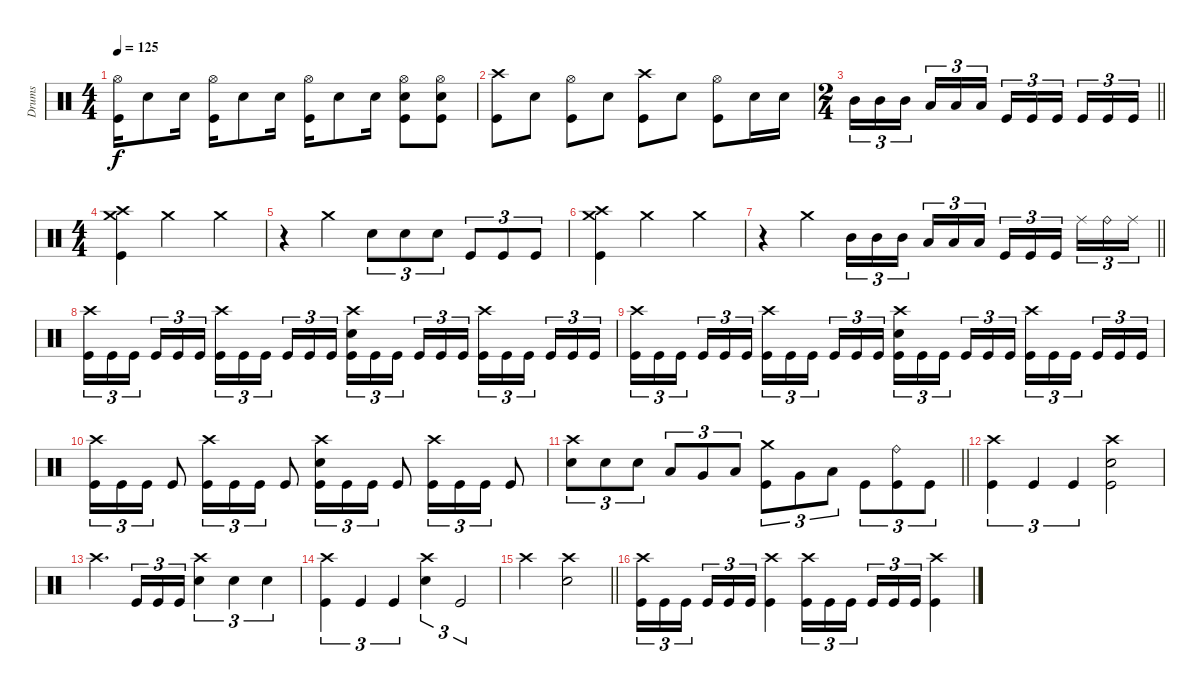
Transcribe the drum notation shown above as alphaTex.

\track ("Drums" "Drums") {instrument percussion}
\staff
\articulation defaults
\ts (4 4)
\tempo 125
\clef neutral
\ks c
("Hi-Hat (open)" "Kick (hit)").16{dy f} "Electric Snare (hit)".8 "Electric Snare (hit)".16 ("Hi-Hat (open)" "Kick (hit)").16 "Electric Snare (hit)".8 "Electric Snare (hit)".16 ("Hi-Hat (open)" "Kick (hit)").16 "Electric Snare (hit)".8 "Electric Snare (hit)".16 ("Hi-Hat (open)" "Electric Snare (hit)" "Kick (hit)").8 ("Hi-Hat (open)" "Electric Snare (hit)" "Kick (hit)").8 |
("Crash high (hit)" "Kick (hit)").8 "Electric Snare (hit)".8 ("Hi-Hat (open)" "Kick (hit)").8 "Electric Snare (hit)".8 ("Crash high (hit)" "Kick (hit)").8 "Electric Snare (hit)".8 ("Hi-Hat (open)" "Kick (hit)").8 "Electric Snare (hit)".16 "Electric Snare (hit)".16 |
\ts (2 4)
\barLineRight lightlight "Mid Tom (hit)".16{tu (3 2)} "Mid Tom (hit)".16{tu (3 2)} "Mid Tom (hit)".16{tu (3 2) beam splitsecondary} "Low Tom (hit)".16{tu (3 2)} "Low Tom (hit)".16{tu (3 2)} "Low Tom (hit)".16{tu (3 2)} "Kick (hit)".16{tu (3 2)} "Kick (hit)".16{tu (3 2)} "Kick (hit)".16{tu (3 2) beam splitsecondary} "Kick (hit)".16{tu (3 2)} "Kick (hit)".16{tu (3 2)} "Kick (hit)".16{tu (3 2)}
|
\ts (4 4)
\section ("" "")
("Crash high (hit)" "Crash medium (hit)" "Kick (hit)").4 "Crash medium (hit)".2 "Crash medium (hit)".4 |
r.4 "Crash medium (hit)".4 "Electric Snare (hit)".8{tu (3 2)} "Electric Snare (hit)".8{tu (3 2)} "Electric Snare (hit)".8{tu (3 2)} "Kick (hit)".8{tu (3 2)} "Kick (hit)".8{tu (3 2)} "Kick (hit)".8{tu (3 2)} |
("Crash high (hit)" "Crash medium (hit)" "Kick (hit)").4 "Crash medium (hit)".2 "Crash medium (hit)".4 |
\barLineRight lightlight
r.4 "Crash medium (hit)".4 "Mid Tom (hit)".16{tu (3 2)} "Mid Tom (hit)".16{tu (3 2)} "Mid Tom (hit)".16{tu (3 2) beam splitsecondary} "Low Tom (hit)".16{tu (3 2)} "Low Tom (hit)".16{tu (3 2)} "Low Tom (hit)".16{tu (3 2)} "Kick (hit)".16{tu (3 2)} "Kick (hit)".16{tu (3 2)} "Kick (hit)".16{tu (3 2) beam splitsecondary} "Ride (middle)".16{tu (3 2)} "Ride (bell)".16{tu (3 2)} "Ride (middle)".16{tu (3 2)} |
("Crash high (hit)" "Kick (hit)").16{tu (3 2)} "Kick (hit)".16{tu (3 2)} "Kick (hit)".16{tu (3 2) beam splitsecondary} "Kick (hit)".16{tu (3 2)} "Kick (hit)".16{tu (3 2)} "Kick (hit)".16{tu (3 2)} ("Crash high (hit)" "Kick (hit)").16{tu (3 2)} "Kick (hit)".16{tu (3 2)} "Kick (hit)".16{tu (3 2) beam splitsecondary} "Kick (hit)".16{tu (3 2)} "Kick (hit)".16{tu (3 2)} "Kick (hit)".16{tu (3 2)} ("Crash high (hit)" "Electric Snare (hit)" "Kick (hit)").16{tu (3 2)} "Kick (hit)".16{tu (3 2)} "Kick (hit)".16{tu (3 2) beam splitsecondary} "Kick (hit)".16{tu (3 2)} "Kick (hit)".16{tu (3 2)} "Kick (hit)".16{tu (3 2)} ("Crash high (hit)" "Kick (hit)").16{tu (3 2)} "Kick (hit)".16{tu (3 2)} "Kick (hit)".16{tu (3 2) beam splitsecondary} "Kick (hit)".16{tu (3 2)} "Kick (hit)".16{tu (3 2)} "Kick (hit)".16{tu (3 2)} |
("Crash high (hit)" "Kick (hit)").16{tu (3 2)} "Kick (hit)".16{tu (3 2)} "Kick (hit)".16{tu (3 2) beam splitsecondary} "Kick (hit)".16{tu (3 2)} "Kick (hit)".16{tu (3 2)} "Kick (hit)".16{tu (3 2)} ("Crash high (hit)" "Kick (hit)").16{tu (3 2)} "Kick (hit)".16{tu (3 2)} "Kick (hit)".16{tu (3 2) beam splitsecondary} "Kick (hit)".16{tu (3 2)} "Kick (hit)".16{tu (3 2)} "Kick (hit)".16{tu (3 2)} ("Crash high (hit)" "Electric Snare (hit)" "Kick (hit)").16{tu (3 2)} "Kick (hit)".16{tu (3 2)} "Kick (hit)".16{tu (3 2) beam splitsecondary} "Kick (hit)".16{tu (3 2)} "Kick (hit)".16{tu (3 2)} "Kick (hit)".16{tu (3 2)} ("Crash high (hit)" "Kick (hit)").16{tu (3 2)} "Kick (hit)".16{tu (3 2)} "Kick (hit)".16{tu (3 2) beam splitsecondary} "Kick (hit)".16{tu (3 2)} "Kick (hit)".16{tu (3 2)} "Kick (hit)".16{tu (3 2)} |
("Crash high (hit)" "Kick (hit)").16{tu (3 2)} "Kick (hit)".16{tu (3 2)} "Kick (hit)".16{tu (3 2)} "Kick (hit)".8 ("Crash high (hit)" "Kick (hit)").16{tu (3 2)} "Kick (hit)".16{tu (3 2)} "Kick (hit)".16{tu (3 2)} "Kick (hit)".8 ("Crash high (hit)" "Electric Snare (hit)" "Kick (hit)").16{tu (3 2)} "Kick (hit)".16{tu (3 2)} "Kick (hit)".16{tu (3 2)} "Kick (hit)".8 ("Crash high (hit)" "Kick (hit)").16{tu (3 2)} "Kick (hit)".16{tu (3 2)} "Kick (hit)".16{tu (3 2)} "Kick (hit)".8 |
\barLineRight lightlight
("Crash high (hit)" "Electric Snare (hit)").8{tu (3 2)} "Electric Snare (hit)".8{tu (3 2)} "Electric Snare (hit)".8{tu (3 2)} "Low Tom (hit)".8{tu (3 2)} "Very Low Tom (hit)".8{tu (3 2)} "Low Floor Tom (hit)".8{tu (3 2)} ("Crash medium (hit)" "Kick (hit)").8{tu (3 2)} "Very Low Tom (hit)".8{tu (3 2)} "Low Floor Tom (hit)".8{tu (3 2)} "Kick (hit)".8{tu (3 2)} ("Ride (bell)" "Kick (hit)").8{tu (3 2)} "Kick (hit)".8{tu (3 2)} |
("Crash high (hit)" "Kick (hit)").4{tu (3 2)} "Kick (hit)".4{tu (3 2)} "Kick (hit)".4{tu (3 2)} ("Crash high (hit)" "Electric Snare (hit)" "Kick (hit)").2 |
"Crash high (hit)".4{d} "Kick (hit)".16{tu (3 2)} "Kick (hit)".16{tu (3 2)} "Kick (hit)".16{tu (3 2)} ("Crash high (hit)" "Electric Snare (hit)").4{tu (3 2)} "Electric Snare (hit)".4{tu (3 2)} "Electric Snare (hit)".4{tu (3 2)} |
("Crash high (hit)" "Kick (hit)").4{tu (3 2)} "Kick (hit)".4{tu (3 2)} "Kick (hit)".4{tu (3 2)} ("Crash high (hit)" "Electric Snare (hit)").4{tu (3 2)} "Kick (hit)".2{tu (3 2)} |
\barLineRight lightlight "Crash high (hit)".2
("Crash high (hit)" "Electric Snare (hit)").2 |
("Crash high (hit)" "Kick (hit)").16{tu (3 2)} "Kick (hit)".16{tu (3 2)} "Kick (hit)".16{tu (3 2) beam splitsecondary} "Kick (hit)".16{tu (3 2)} "Kick (hit)".16{tu (3 2)} "Kick (hit)".16{tu (3 2)} ("Crash high (hit)" "Kick (hit)").4 ("Crash high (hit)" "Kick (hit)").16{tu (3 2)} "Kick (hit)".16{tu (3 2)} "Kick (hit)".16{tu (3 2) beam splitsecondary} "Kick (hit)".16{tu (3 2)} "Kick (hit)".16{tu (3 2)} "Kick (hit)".16{tu (3 2)} ("Crash high (hit)" "Kick (hit)").4
